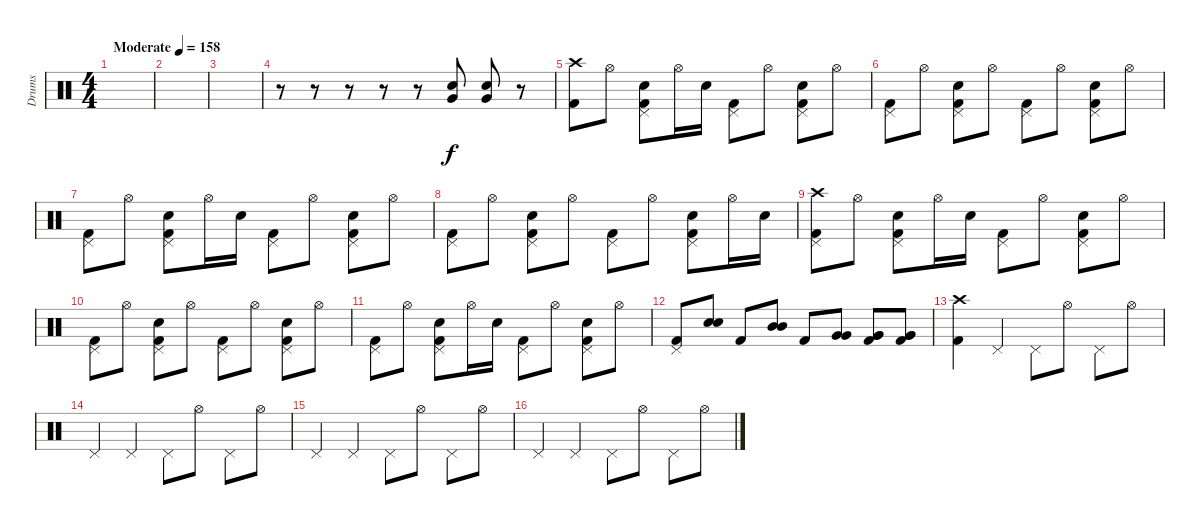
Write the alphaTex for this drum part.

\track ("Drums" "Drums") {instrument percussion}
\staff {score}
\articulation defaults
\ts (4 4)
\tempo (158 "Moderate")
\clef neutral
\ks c
|
|
|
r.8 r.8 r.8 r.8 r.8 ("Electric Snare (hit)" "Very Low Tom (hit)").8 ("Electric Snare (hit)" "Very Low Tom (hit)").8 r.8 |
("Crash high (hit)" "Kick (hit) 2").8 "Hi-Hat (open)".8 ("Pedal Hi-Hat (hit)" "Electric Snare (hit)" "Kick (hit) 2").8 "Hi-Hat (open)".16 "Electric Snare (hit)".16 ("Pedal Hi-Hat (hit)" "Kick (hit) 2").8 "Hi-Hat (open)".8 ("Pedal Hi-Hat (hit)" "Electric Snare (hit)" "Kick (hit) 2").8 "Hi-Hat (open)".8 |
("Pedal Hi-Hat (hit)" "Kick (hit) 2").8 "Hi-Hat (open)".8 ("Pedal Hi-Hat (hit)" "Electric Snare (hit)" "Kick (hit) 2").8 "Hi-Hat (open)".8 ("Pedal Hi-Hat (hit)" "Kick (hit) 2").8 "Hi-Hat (open)".8 ("Pedal Hi-Hat (hit)" "Electric Snare (hit)" "Kick (hit) 2").8 "Hi-Hat (open)".8 |
("Pedal Hi-Hat (hit)" "Kick (hit) 2").8 "Hi-Hat (open)".8 ("Pedal Hi-Hat (hit)" "Electric Snare (hit)" "Kick (hit) 2").8 "Hi-Hat (open)".16 "Electric Snare (hit)".16 ("Pedal Hi-Hat (hit)" "Kick (hit) 2").8 "Hi-Hat (open)".8 ("Pedal Hi-Hat (hit)" "Electric Snare (hit)" "Kick (hit) 2").8 "Hi-Hat (open)".8 |
("Pedal Hi-Hat (hit)" "Kick (hit) 2").8 "Hi-Hat (open)".8 ("Pedal Hi-Hat (hit)" "Electric Snare (hit)" "Kick (hit) 2").8 "Hi-Hat (open)".8 ("Pedal Hi-Hat (hit)" "Kick (hit) 2").8 "Hi-Hat (open)".8 ("Pedal Hi-Hat (hit)" "Electric Snare (hit)" "Kick (hit) 2").8 "Hi-Hat (open)".16 "Electric Snare (hit)".16 |
("Crash high (hit)" "Pedal Hi-Hat (hit)" "Kick (hit) 2").8 "Hi-Hat (open)".8 ("Pedal Hi-Hat (hit)" "Electric Snare (hit)" "Kick (hit) 2").8 "Hi-Hat (open)".16 "Electric Snare (hit)".16 ("Pedal Hi-Hat (hit)" "Kick (hit) 2").8 "Hi-Hat (open)".8 ("Pedal Hi-Hat (hit)" "Electric Snare (hit)" "Kick (hit) 2").8 "Hi-Hat (open)".8 |
("Pedal Hi-Hat (hit)" "Kick (hit) 2").8 "Hi-Hat (open)".8 ("Pedal Hi-Hat (hit)" "Electric Snare (hit)" "Kick (hit) 2").8 "Hi-Hat (open)".8 ("Pedal Hi-Hat (hit)" "Kick (hit) 2").8 "Hi-Hat (open)".8 ("Pedal Hi-Hat (hit)" "Electric Snare (hit)" "Kick (hit) 2").8 "Hi-Hat (open)".8 |
("Pedal Hi-Hat (hit)" "Kick (hit) 2").8 "Hi-Hat (open)".8 ("Pedal Hi-Hat (hit)" "Electric Snare (hit)" "Kick (hit) 2").8 "Hi-Hat (open)".16 "Electric Snare (hit)".16 ("Pedal Hi-Hat (hit)" "Kick (hit) 2").8 "Hi-Hat (open)".8 ("Pedal Hi-Hat (hit)" "Electric Snare (hit)" "Kick (hit) 2").8 "Hi-Hat (open)".8 |
("Pedal Hi-Hat (hit)" "Kick (hit) 2").8 ("Electric Snare (hit)" "Electric Snare (hit)").8 "Kick (hit) 2".8 ("Mid Tom (hit)" "Mid Tom (hit)").8 "Kick (hit) 2".8 ("Very Low Tom (hit)" "Very Low Tom (hit)").8 ("Very Low Tom (hit)" "Very Low Tom (hit)" "Kick (hit) 2").8 ("Very Low Tom (hit)" "Very Low Tom (hit)" "Kick (hit) 2").8 |
("Crash high (hit)" "Kick (hit) 2").4 "Pedal Hi-Hat (hit)".4 "Pedal Hi-Hat (hit)".8 "Hi-Hat (open)".8 "Pedal Hi-Hat (hit)".8 "Hi-Hat (open)".8 |
"Pedal Hi-Hat (hit)".4 "Pedal Hi-Hat (hit)".4 "Pedal Hi-Hat (hit)".8 "Hi-Hat (open)".8 "Pedal Hi-Hat (hit)".8 "Hi-Hat (open)".8 |
"Pedal Hi-Hat (hit)".4 "Pedal Hi-Hat (hit)".4 "Pedal Hi-Hat (hit)".8 "Hi-Hat (open)".8 "Pedal Hi-Hat (hit)".8 "Hi-Hat (open)".8 |
"Pedal Hi-Hat (hit)".4 "Pedal Hi-Hat (hit)".4 "Pedal Hi-Hat (hit)".8 "Hi-Hat (open)".8 "Pedal Hi-Hat (hit)".8 "Hi-Hat (open)".8
